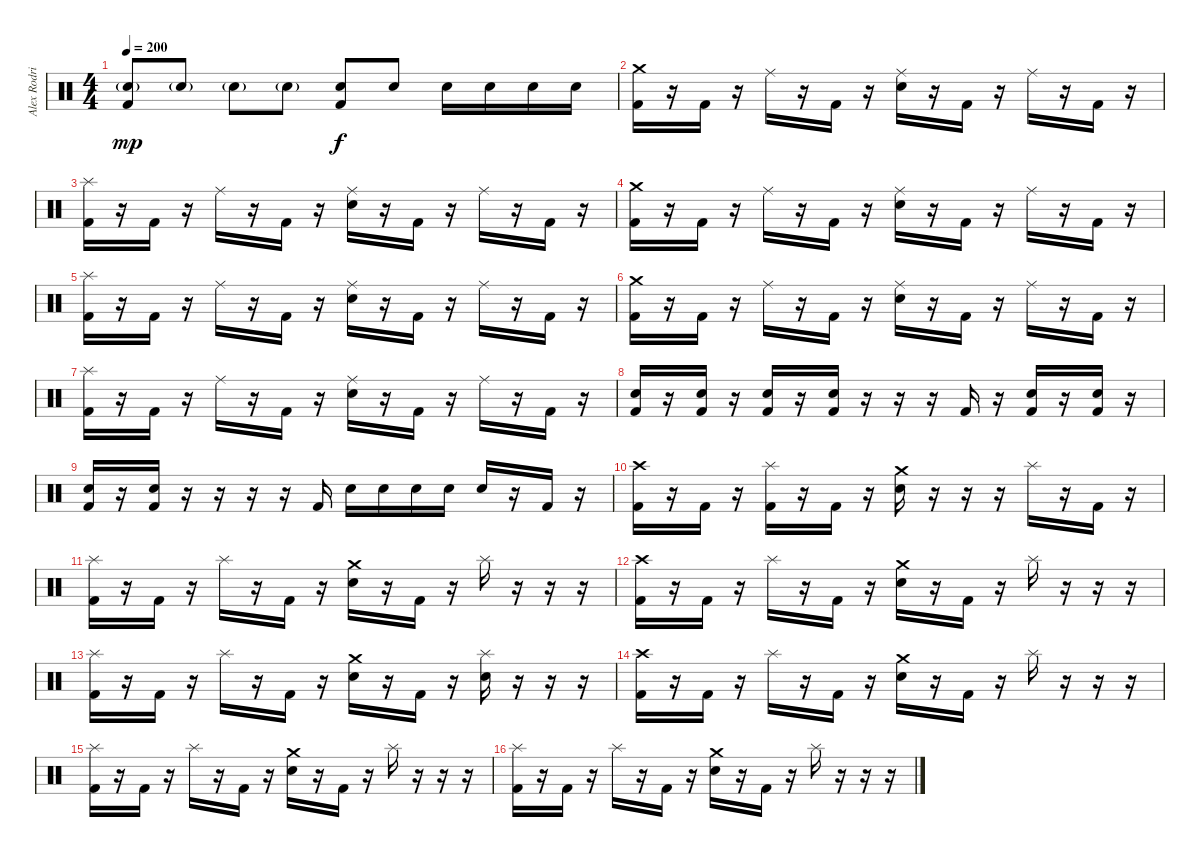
\track ("Alex Rodriguez" "Alex Rodri") {instrument percussion}
\staff {score}
\articulation defaults
\ts (4 4)
\tempo 200
\clef neutral
\ks c
("Electric Snare (hit)"{g} "Kick (hit) 2").8{dy mp} "Electric Snare (hit)"{g}.8 "Electric Snare (hit)"{g}.8 "Electric Snare (hit)"{g}.8 ("Electric Snare (hit)" "Kick (hit) 2").8{dy f} "Electric Snare (hit)".8 "Electric Snare (hit)".16 "Electric Snare (hit)".16 "Electric Snare (hit)".16 "Electric Snare (hit)".16 |
("Crash medium (hit)" "Kick (hit) 2").16 r.16 "Kick (hit) 2".16 r.16 "Ride (middle)".16 r.16 "Kick (hit) 2".16 r.16 ("Ride (middle)" "Electric Snare (hit)").16 r.16 "Kick (hit) 2".16 r.16 "Ride (middle)".16 r.16 "Kick (hit) 2".16 r.16 |
("Splash (hit)" "Kick (hit) 2").16 r.16 "Kick (hit) 2".16 r.16 "Ride (middle)".16 r.16 "Kick (hit) 2".16 r.16 ("Ride (middle)" "Electric Snare (hit)").16 r.16 "Kick (hit) 2".16 r.16 "Ride (middle)".16 r.16 "Kick (hit) 2".16 r.16 |
("Crash medium (hit)" "Kick (hit) 2").16 r.16 "Kick (hit) 2".16 r.16 "Ride (middle)".16 r.16 "Kick (hit) 2".16 r.16 ("Ride (middle)" "Electric Snare (hit)").16 r.16 "Kick (hit) 2".16 r.16 "Ride (middle)".16 r.16 "Kick (hit) 2".16 r.16 |
("Splash (hit)" "Kick (hit) 2").16 r.16 "Kick (hit) 2".16 r.16 "Ride (middle)".16 r.16 "Kick (hit) 2".16 r.16 ("Ride (middle)" "Electric Snare (hit)").16 r.16 "Kick (hit) 2".16 r.16 "Ride (middle)".16 r.16 "Kick (hit) 2".16 r.16 |
("Crash medium (hit)" "Kick (hit) 2").16 r.16 "Kick (hit) 2".16 r.16 "Ride (middle)".16 r.16 "Kick (hit) 2".16 r.16 ("Ride (middle)" "Electric Snare (hit)").16 r.16 "Kick (hit) 2".16 r.16 "Ride (middle)".16 r.16 "Kick (hit) 2".16 r.16 |
("Splash (hit)" "Kick (hit) 2").16 r.16 "Kick (hit) 2".16 r.16 "Ride (middle)".16 r.16 "Kick (hit) 2".16 r.16 ("Ride (middle)" "Electric Snare (hit)").16 r.16 "Kick (hit) 2".16 r.16 "Ride (middle)".16 r.16 "Kick (hit) 2".16 r.16 |
("Electric Snare (hit)" "Kick (hit) 2").16 r.16 ("Electric Snare (hit)" "Kick (hit) 2").16 r.16 ("Electric Snare (hit)" "Kick (hit) 2").16 r.16 ("Electric Snare (hit)" "Kick (hit) 2").16 r.16 r.16 r.16 "Kick (hit) 2".16 r.16 ("Electric Snare (hit)" "Kick (hit) 2").16 r.16 ("Electric Snare (hit)" "Kick (hit) 2").16 r.16 |
("Electric Snare (hit)" "Kick (hit) 2").16 r.16 ("Electric Snare (hit)" "Kick (hit) 2").16 r.16 r.16 r.16 r.16 "Kick (hit) 2".16 "Electric Snare (hit)".16 "Electric Snare (hit)".16 "Electric Snare (hit)".16 "Electric Snare (hit)".16 "Electric Snare (hit)".16 r.16 "Kick (hit) 2".16 r.16 |
("Crash high (hit)" "Kick (hit) 2").16 r.16 "Kick (hit) 2".16 r.16 ("Splash (hit)" "Kick (hit) 2").16 r.16 "Kick (hit) 2".16 r.16 ("Crash medium (hit)" "Electric Snare (hit)").16 r.16 r.16 r.16 "Splash (hit)".16 r.16 "Kick (hit) 2".16 r.16 |
("Splash (hit)" "Kick (hit) 2").16 r.16 "Kick (hit) 2".16 r.16 "Splash (hit)".16 r.16 "Kick (hit) 2".16 r.16 ("Crash medium (hit)" "Electric Snare (hit)").16 r.16 "Kick (hit) 2".16 r.16 "Splash (hit)".16 r.16 r.16 r.16 |
("Crash high (hit)" "Kick (hit) 2").16 r.16 "Kick (hit) 2".16 r.16 "Splash (hit)".16 r.16 "Kick (hit) 2".16 r.16 ("Crash medium (hit)" "Electric Snare (hit)").16 r.16 "Kick (hit) 2".16 r.16 "Splash (hit)".16 r.16 r.16 r.16 |
("Splash (hit)" "Kick (hit) 2").16 r.16 "Kick (hit) 2".16 r.16 "Splash (hit)".16 r.16 "Kick (hit) 2".16 r.16 ("Crash medium (hit)" "Electric Snare (hit)").16 r.16 "Kick (hit) 2".16 r.16 ("Splash (hit)" "Electric Snare (hit)").16 r.16 r.16 r.16 |
("Crash high (hit)" "Kick (hit) 2").16 r.16 "Kick (hit) 2".16 r.16 "Splash (hit)".16 r.16 "Kick (hit) 2".16 r.16 ("Crash medium (hit)" "Electric Snare (hit)").16 r.16 "Kick (hit) 2".16 r.16 "Splash (hit)".16 r.16 r.16 r.16 |
("Splash (hit)" "Kick (hit) 2").16 r.16 "Kick (hit) 2".16 r.16 "Splash (hit)".16 r.16 "Kick (hit) 2".16 r.16 ("Crash medium (hit)" "Electric Snare (hit)").16 r.16 "Kick (hit) 2".16 r.16 "Splash (hit)".16 r.16 r.16 r.16 |
("Splash (hit)" "Kick (hit) 2").16 r.16 "Kick (hit) 2".16 r.16 "Splash (hit)".16 r.16 "Kick (hit) 2".16 r.16 ("Crash medium (hit)" "Electric Snare (hit)").16 r.16 "Kick (hit) 2".16 r.16 "Splash (hit)".16 r.16 r.16 r.16
